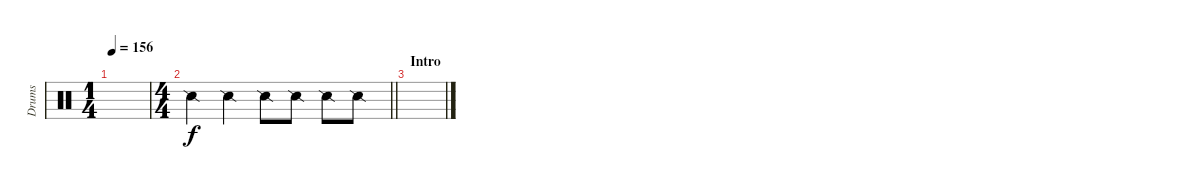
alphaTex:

\track ("Drums" "Drums") {instrument percussion}
\staff {score}
\articulation defaults
\ts (1 4)
\tempo 156
\clef neutral
\ks c
|
\ts (4 4)
\barLineRight lightlight "Snare (side stick) 2".4 "Snare (side stick) 2".4 "Snare (side stick) 2".8 "Snare (side stick) 2".8 "Snare (side stick) 2".8 "Snare (side stick) 2".8
|
\section ("" "Intro")
